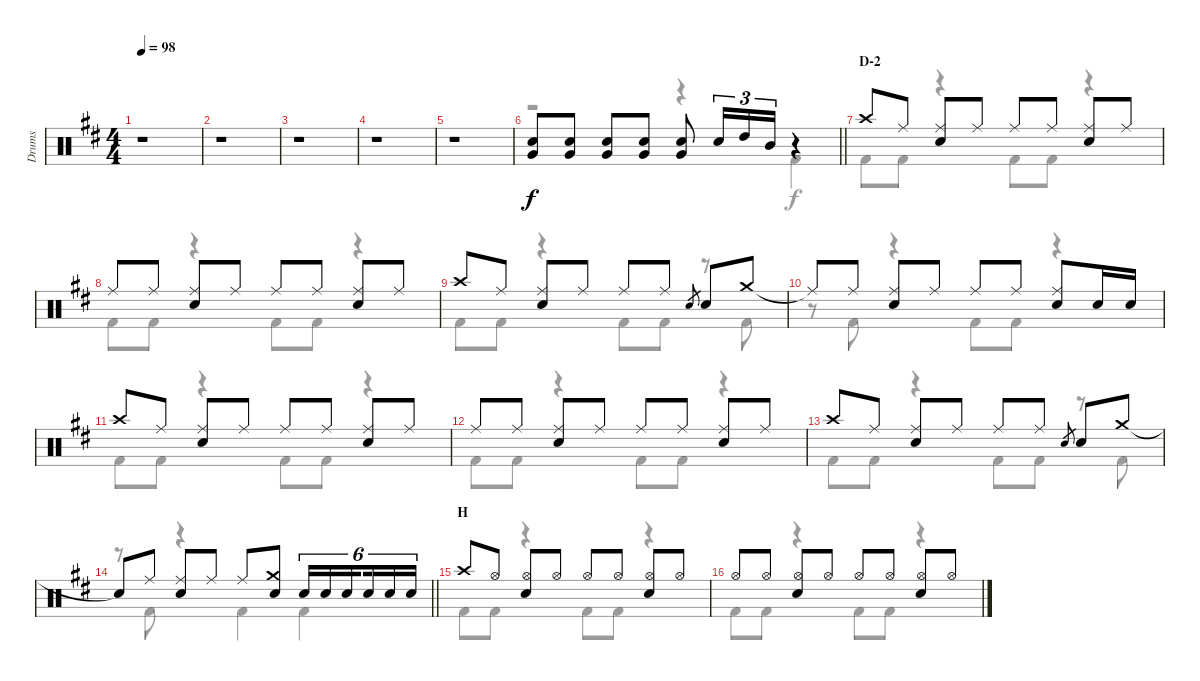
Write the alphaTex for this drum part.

\track ("Drums" "Drums") {instrument percussion}
\staff {score}
\articulation defaults
\voice
\ts (4 4)
\tempo 98
\clef neutral
\ks d
r.1{dy f} |
r.1 |
r.1 |
r.1 |
r.1 |
\barLineRight lightlight
("Snare (hit) 2" "Very Low Tom (hit)").8 ("Snare (hit) 2" "Very Low Tom (hit)").8 ("Snare (hit) 2" "Very Low Tom (hit)").8 ("Snare (hit) 2" "Very Low Tom (hit)").8 ("Snare (hit) 2" "Very Low Tom (hit)").8 "Snare (hit) 2".16{tu (3 2)} "High Tom (hit)".16{tu (3 2)} "Mid Tom (hit)".16{tu (3 2)} r.4 |
\section ("" "D-2")
"Crash high (hit)".8 "Ride (middle)".8 ("Ride (middle)" "Snare (hit) 2").8 "Ride (middle)".8 "Ride (middle)".8 "Ride (middle)".8 ("Ride (middle)" "Snare (hit) 2").8 "Ride (middle)".8 |
"Ride (middle)".8 "Ride (middle)".8 ("Ride (middle)" "Snare (hit) 2").8 "Ride (middle)".8 "Ride (middle)".8 "Ride (middle)".8 ("Ride (middle)" "Snare (hit) 2").8 "Ride (middle)".8 |
"Crash high (hit)".8 "Ride (middle)".8 ("Ride (middle)" "Snare (hit) 2").8 "Ride (middle)".8 "Ride (middle)".8 "Ride (middle)".8 "Snare (hit) 2".8{gr} "Snare (hit) 2".8 "Crash medium (hit)".8 |
"Ride (middle)"{t}.8 "Ride (middle)".8 ("Ride (middle)" "Snare (hit) 2").8 "Ride (middle)".8 "Ride (middle)".8 "Ride (middle)".8 ("Ride (middle)" "Snare (hit) 2").8 "Snare (hit) 2".16 "Snare (hit) 2".16 |
"Crash high (hit)".8 "Ride (middle)".8 ("Ride (middle)" "Snare (hit) 2").8 "Ride (middle)".8 "Ride (middle)".8 "Ride (middle)".8 ("Ride (middle)" "Snare (hit) 2").8 "Ride (middle)".8 |
"Ride (middle)".8 "Ride (middle)".8 ("Ride (middle)" "Snare (hit) 2").8 "Ride (middle)".8 "Ride (middle)".8 "Ride (middle)".8 ("Ride (middle)" "Snare (hit) 2").8 "Ride (middle)".8 |
"Crash high (hit)".8 "Ride (middle)".8 ("Ride (middle)" "Snare (hit) 2").8 "Ride (middle)".8 "Ride (middle)".8 "Ride (middle)".8 "Snare (hit) 2".8{gr} "Snare (hit) 2".8 "Crash medium (hit)".8 |
\barLineRight lightlight "Snare (hit)"{t}.8 "Ride (middle)".8
("Ride (middle)" "Snare (hit) 2").8 "Ride (middle)".8 "Ride (middle)".8 ("Crash medium (hit)" "Snare (hit) 2").8 "Snare (hit) 2".16{tu (6 4)} "Snare (hit) 2".16{tu (6 4)} "Snare (hit) 2".16{tu (6 4) beam splitsecondary} "Snare (hit) 2".16{tu (6 4)} "Snare (hit) 2".16{tu (6 4)} "Snare (hit) 2".16{tu (6 4)} |
\section ("" "H")
"Crash high (hit)".8 "Hi-Hat (open)".8 ("Hi-Hat (open)" "Snare (hit) 2").8 "Hi-Hat (open)".8 "Hi-Hat (open)".8 "Hi-Hat (open)".8 ("Hi-Hat (open)" "Snare (hit) 2").8 "Hi-Hat (open)".8 |
"Hi-Hat (open)".8 "Hi-Hat (open)".8 ("Hi-Hat (open)" "Snare (hit) 2").8 "Hi-Hat (open)".8 "Hi-Hat (open)".8 "Hi-Hat (open)".8 ("Hi-Hat (open)" "Snare (hit) 2").8 "Hi-Hat (open)".8
\voice
\clef neutral
\ottava regular
\simile none
\ks d
r.1{dy f} |
r.1 |
r.1 |
r.1 |
r.1 |
\barLineRight lightlight
r.2 r.4 "Kick (hit) 2".4 |
"Kick (hit) 2".8 "Kick (hit) 2".8 r.4 "Kick (hit) 2".8 "Kick (hit) 2".8 r.4 |
"Kick (hit) 2".8 "Kick (hit) 2".8 r.4 "Kick (hit) 2".8 "Kick (hit) 2".8 r.4 |
"Kick (hit) 2".8 "Kick (hit) 2".8 r.4 "Kick (hit) 2".8 "Kick (hit) 2".8 r.8 "Kick (hit) 2".8 |
r.8 "Kick (hit) 2".8 r.4 "Kick (hit) 2".8 "Kick (hit) 2".8 r.4 |
"Kick (hit) 2".8 "Kick (hit) 2".8 r.4 "Kick (hit) 2".8 "Kick (hit) 2".8 r.4 |
"Kick (hit) 2".8 "Kick (hit) 2".8 r.4 "Kick (hit) 2".8 "Kick (hit) 2".8 r.4 |
"Kick (hit) 2".8 "Kick (hit) 2".8 r.4 "Kick (hit) 2".8 "Kick (hit) 2".8 r.8 "Kick (hit) 2".8 |
\barLineRight lightlight
r.8 "Kick (hit) 2".8 r.4 "Kick (hit) 2".4 "Kick (hit) 2".4 |
"Kick (hit) 2".8 "Kick (hit) 2".8 r.4 "Kick (hit) 2".8 "Kick (hit) 2".8 r.4 |
"Kick (hit) 2".8 "Kick (hit) 2".8 r.4 "Kick (hit) 2".8 "Kick (hit) 2".8 r.4
